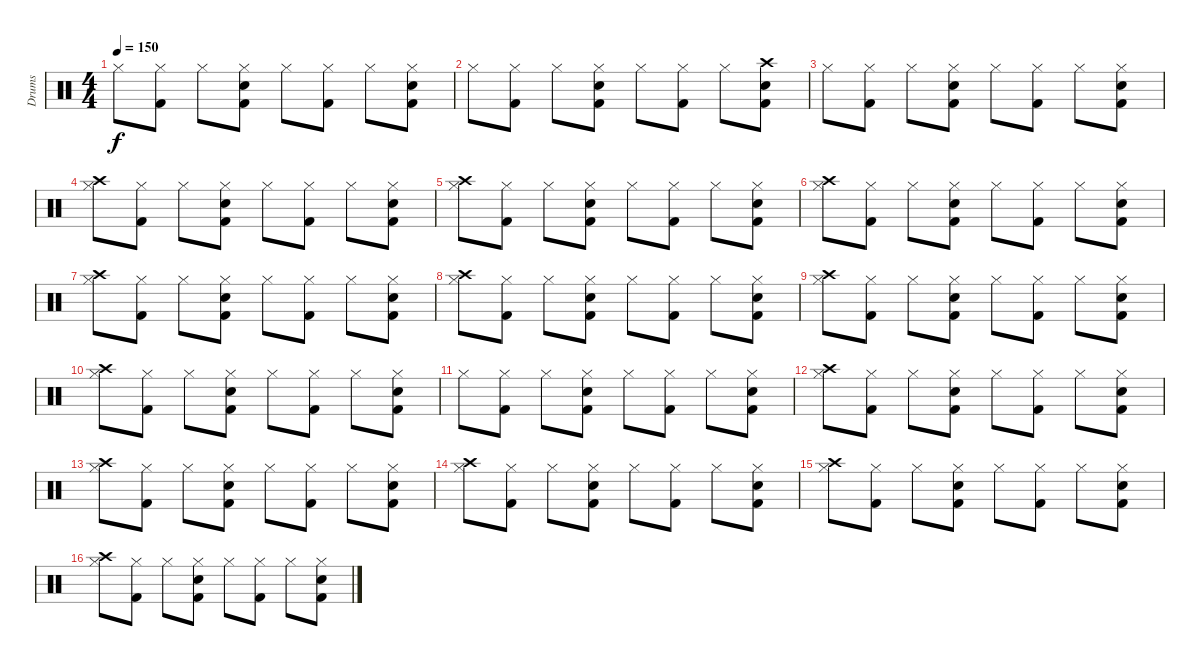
\track ("Drums" "Drums") {instrument percussion}
\staff {score}
\articulation defaults
\ts (4 4)
\tempo 150
\clef neutral
\ks c "Hi-Hat (closed)".8{dy f}
("Kick (hit) 2" "Hi-Hat (closed)").8 "Hi-Hat (closed)".8 ("Electric Snare (hit)" "Kick (hit) 2" "Hi-Hat (closed)").8 "Hi-Hat (closed)".8 ("Kick (hit) 2" "Hi-Hat (closed)").8 "Hi-Hat (closed)".8 ("Electric Snare (hit)" "Kick (hit) 2" "Hi-Hat (closed)").8 |
"Hi-Hat (closed)".8 ("Kick (hit) 2" "Hi-Hat (closed)").8 "Hi-Hat (closed)".8 ("Electric Snare (hit)" "Kick (hit) 2" "Hi-Hat (closed)").8 "Hi-Hat (closed)".8 ("Kick (hit) 2" "Hi-Hat (closed)").8 "Hi-Hat (closed)".8 ("Electric Snare (hit)" "Kick (hit) 2" "Crash high (hit)").8 |
"Hi-Hat (closed)".8 ("Kick (hit) 2" "Hi-Hat (closed)").8 "Hi-Hat (closed)".8 ("Electric Snare (hit)" "Kick (hit) 2" "Hi-Hat (closed)").8 "Hi-Hat (closed)".8 ("Kick (hit) 2" "Hi-Hat (closed)").8 "Hi-Hat (closed)".8 ("Electric Snare (hit)" "Kick (hit) 2" "Hi-Hat (closed)").8 |
("Crash high (hit)" "Hi-Hat (closed)").8 ("Kick (hit) 2" "Hi-Hat (closed)").8 "Hi-Hat (closed)".8 ("Electric Snare (hit)" "Kick (hit) 2" "Hi-Hat (closed)").8 "Hi-Hat (closed)".8 ("Kick (hit) 2" "Hi-Hat (closed)").8 "Hi-Hat (closed)".8 ("Electric Snare (hit)" "Kick (hit) 2" "Hi-Hat (closed)").8 |
("Crash high (hit)" "Hi-Hat (closed)").8 ("Kick (hit) 2" "Hi-Hat (closed)").8 "Hi-Hat (closed)".8 ("Electric Snare (hit)" "Kick (hit) 2" "Hi-Hat (closed)").8 "Hi-Hat (closed)".8 ("Kick (hit) 2" "Hi-Hat (closed)").8 "Hi-Hat (closed)".8 ("Electric Snare (hit)" "Kick (hit) 2" "Hi-Hat (closed)").8 |
("Crash high (hit)" "Hi-Hat (closed)").8 ("Kick (hit) 2" "Hi-Hat (closed)").8 "Hi-Hat (closed)".8 ("Electric Snare (hit)" "Kick (hit) 2" "Hi-Hat (closed)").8 "Hi-Hat (closed)".8 ("Kick (hit) 2" "Hi-Hat (closed)").8 "Hi-Hat (closed)".8 ("Electric Snare (hit)" "Kick (hit) 2" "Hi-Hat (closed)").8 |
("Crash high (hit)" "Hi-Hat (closed)").8 ("Kick (hit) 2" "Hi-Hat (closed)").8 "Hi-Hat (closed)".8 ("Electric Snare (hit)" "Kick (hit) 2" "Hi-Hat (closed)").8 "Hi-Hat (closed)".8 ("Kick (hit) 2" "Hi-Hat (closed)").8 "Hi-Hat (closed)".8 ("Electric Snare (hit)" "Kick (hit) 2" "Hi-Hat (closed)").8 |
("Crash high (hit)" "Hi-Hat (closed)").8 ("Kick (hit) 2" "Hi-Hat (closed)").8 "Hi-Hat (closed)".8 ("Electric Snare (hit)" "Kick (hit) 2" "Hi-Hat (closed)").8 "Hi-Hat (closed)".8 ("Kick (hit) 2" "Hi-Hat (closed)").8 "Hi-Hat (closed)".8 ("Electric Snare (hit)" "Kick (hit) 2" "Hi-Hat (closed)").8 |
("Crash high (hit)" "Hi-Hat (closed)").8 ("Kick (hit) 2" "Hi-Hat (closed)").8 "Hi-Hat (closed)".8 ("Electric Snare (hit)" "Kick (hit) 2" "Hi-Hat (closed)").8 "Hi-Hat (closed)".8 ("Kick (hit) 2" "Hi-Hat (closed)").8 "Hi-Hat (closed)".8 ("Electric Snare (hit)" "Kick (hit) 2" "Hi-Hat (closed)").8 |
("Crash high (hit)" "Hi-Hat (closed)").8 ("Kick (hit) 2" "Hi-Hat (closed)").8 "Hi-Hat (closed)".8 ("Electric Snare (hit)" "Kick (hit) 2" "Hi-Hat (closed)").8 "Hi-Hat (closed)".8 ("Kick (hit) 2" "Hi-Hat (closed)").8 "Hi-Hat (closed)".8 ("Electric Snare (hit)" "Kick (hit) 2" "Hi-Hat (closed)").8 |
"Hi-Hat (closed)".8 ("Kick (hit) 2" "Hi-Hat (closed)").8 "Hi-Hat (closed)".8 ("Electric Snare (hit)" "Kick (hit) 2" "Hi-Hat (closed)").8 "Hi-Hat (closed)".8 ("Kick (hit) 2" "Hi-Hat (closed)").8 "Hi-Hat (closed)".8 ("Electric Snare (hit)" "Kick (hit) 2" "Hi-Hat (closed)").8 |
("Crash high (hit)" "Hi-Hat (closed)").8 ("Kick (hit) 2" "Hi-Hat (closed)").8 "Hi-Hat (closed)".8 ("Electric Snare (hit)" "Kick (hit) 2" "Hi-Hat (closed)").8 "Hi-Hat (closed)".8 ("Kick (hit) 2" "Hi-Hat (closed)").8 "Hi-Hat (closed)".8 ("Electric Snare (hit)" "Kick (hit) 2" "Hi-Hat (closed)").8 |
("Crash high (hit)" "Hi-Hat (closed)").8 ("Kick (hit) 2" "Hi-Hat (closed)").8 "Hi-Hat (closed)".8 ("Electric Snare (hit)" "Kick (hit) 2" "Hi-Hat (closed)").8 "Hi-Hat (closed)".8 ("Kick (hit) 2" "Hi-Hat (closed)").8 "Hi-Hat (closed)".8 ("Electric Snare (hit)" "Kick (hit) 2" "Hi-Hat (closed)").8 |
("Crash high (hit)" "Hi-Hat (closed)").8 ("Kick (hit) 2" "Hi-Hat (closed)").8 "Hi-Hat (closed)".8 ("Electric Snare (hit)" "Kick (hit) 2" "Hi-Hat (closed)").8 "Hi-Hat (closed)".8 ("Kick (hit) 2" "Hi-Hat (closed)").8 "Hi-Hat (closed)".8 ("Electric Snare (hit)" "Kick (hit) 2" "Hi-Hat (closed)").8 |
("Crash high (hit)" "Hi-Hat (closed)").8 ("Kick (hit) 2" "Hi-Hat (closed)").8 "Hi-Hat (closed)".8 ("Electric Snare (hit)" "Kick (hit) 2" "Hi-Hat (closed)").8 "Hi-Hat (closed)".8 ("Kick (hit) 2" "Hi-Hat (closed)").8 "Hi-Hat (closed)".8 ("Electric Snare (hit)" "Kick (hit) 2" "Hi-Hat (closed)").8 |
("Crash high (hit)" "Hi-Hat (closed)").8 ("Kick (hit) 2" "Hi-Hat (closed)").8 "Hi-Hat (closed)".8 ("Electric Snare (hit)" "Kick (hit) 2" "Hi-Hat (closed)").8 "Hi-Hat (closed)".8 ("Kick (hit) 2" "Hi-Hat (closed)").8 "Hi-Hat (closed)".8 ("Electric Snare (hit)" "Kick (hit) 2" "Hi-Hat (closed)").8
